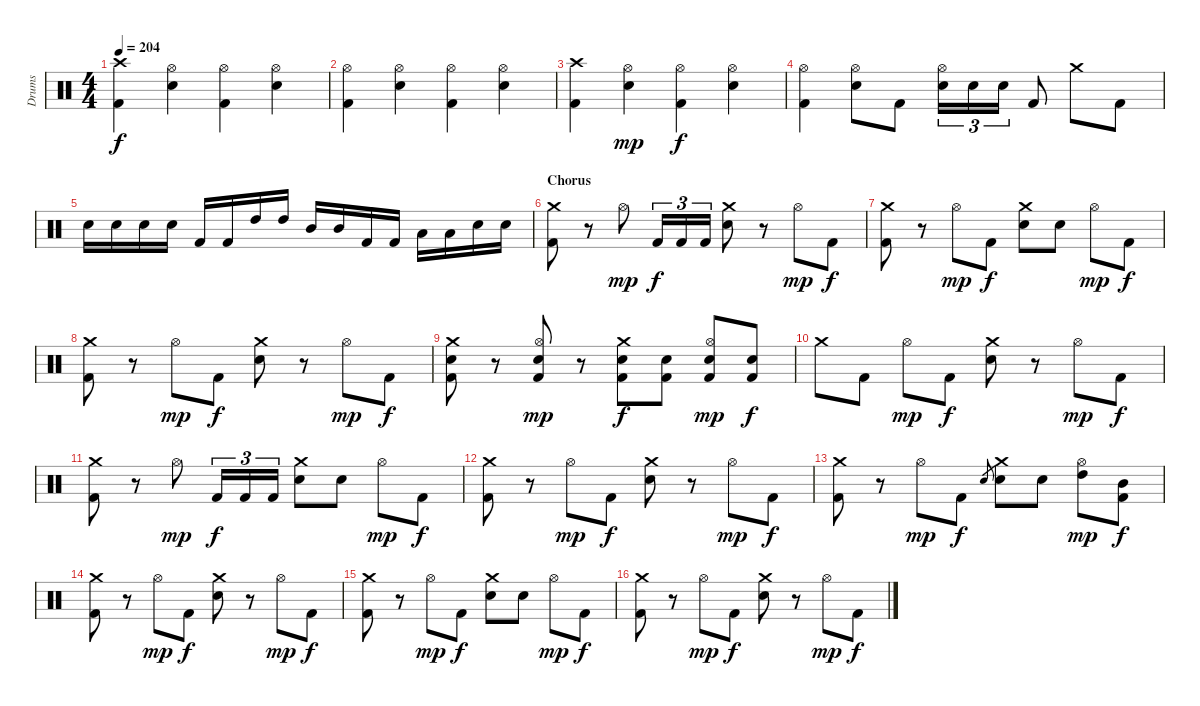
\track ("Drums" "Drums") {instrument percussion}
\staff {score}
\articulation defaults
\ts (4 4)
\tempo 204
\clef neutral
\ks c
("Crash high (hit)" "Kick (hit) 2").4{dy f} ("Hi-Hat (open)" "Electric Snare (hit)").4 ("Hi-Hat (open)" "Kick (hit) 2").4 ("Hi-Hat (open)" "Electric Snare (hit)").4 |
("Hi-Hat (open)" "Kick (hit) 2").4 ("Hi-Hat (open)" "Electric Snare (hit)").4 ("Hi-Hat (open)" "Kick (hit) 2").4 ("Hi-Hat (open)" "Electric Snare (hit)").4 |
("Crash high (hit)" "Kick (hit) 2").4 ("Hi-Hat (open)" "Electric Snare (hit)").4{dy mp} ("Hi-Hat (open)" "Kick (hit) 2").4{dy f} ("Hi-Hat (open)" "Electric Snare (hit)").4 |
("Hi-Hat (open)" "Kick (hit) 2").4 ("Hi-Hat (open)" "Electric Snare (hit)").8 "Kick (hit) 2".8 ("Hi-Hat (open)" "Electric Snare (hit)").16{tu (3 2)} "Electric Snare (hit)".16{tu (3 2)} "Electric Snare (hit)".16{tu (3 2)} "Kick (hit) 2".8 "Crash medium (hit)".8 "Kick (hit) 2".8 |
"Electric Snare (hit)".16 "Electric Snare (hit)".16 "Electric Snare (hit)".16 "Electric Snare (hit)".16 "Kick (hit) 2".16 "Kick (hit) 2".16 "High Tom (hit)".16 "High Tom (hit)".16 "Mid Tom (hit)".16 "Mid Tom (hit)".16 "Kick (hit) 2".16 "Kick (hit) 2".16 "Low Tom (hit)".16 "Low Tom (hit)".16 "Electric Snare (hit)".16 "Electric Snare (hit)".16 |
\section ("" "Chorus")
("Crash medium (hit)" "Kick (hit) 2").8 r.8 "Hi-Hat (open)".8{dy mp} "Kick (hit) 2".16{tu (3 2) dy f} "Kick (hit) 2".16{tu (3 2)} "Kick (hit) 2".16{tu (3 2)} ("Crash medium (hit)" "Electric Snare (hit)").8 r.8 "Hi-Hat (open)".8{dy mp} "Kick (hit) 2".8{dy f} |
("Crash medium (hit)" "Kick (hit) 2").8 r.8 "Hi-Hat (open)".8{dy mp} "Kick (hit) 2".8{dy f} ("Crash medium (hit)" "Electric Snare (hit)").8 "Electric Snare (hit)".8 "Hi-Hat (open)".8{dy mp} "Kick (hit) 2".8{dy f} |
("Crash medium (hit)" "Kick (hit) 2").8 r.8 "Hi-Hat (open)".8{dy mp} "Kick (hit) 2".8{dy f} ("Crash medium (hit)" "Electric Snare (hit)").8 r.8 "Hi-Hat (open)".8{dy mp} "Kick (hit) 2".8{dy f} |
("Crash medium (hit)" "Electric Snare (hit)" "Kick (hit) 2").8 r.8 ("Hi-Hat (open)" "Electric Snare (hit)" "Kick (hit) 2").8{dy mp} r.8 ("Crash medium (hit)" "Electric Snare (hit)" "Kick (hit) 2").8{dy f} ("Electric Snare (hit)" "Kick (hit) 2").8 ("Hi-Hat (open)" "Electric Snare (hit)" "Kick (hit) 2").8{dy mp} ("Electric Snare (hit)" "Kick (hit) 2").8{dy f} |
"Crash medium (hit)".8 "Kick (hit) 2".8 "Hi-Hat (open)".8{dy mp} "Kick (hit) 2".8{dy f} ("Crash medium (hit)" "Electric Snare (hit)").8 r.8 "Hi-Hat (open)".8{dy mp} "Kick (hit) 2".8{dy f} |
("Crash medium (hit)" "Kick (hit) 2").8 r.8 "Hi-Hat (open)".8{dy mp} "Kick (hit) 2".16{tu (3 2) dy f} "Kick (hit) 2".16{tu (3 2)} "Kick (hit) 2".16{tu (3 2)} ("Crash medium (hit)" "Electric Snare (hit)").8 "Electric Snare (hit)".8 "Hi-Hat (open)".8{dy mp} "Kick (hit) 2".8{dy f} |
("Crash medium (hit)" "Kick (hit) 2").8 r.8 "Hi-Hat (open)".8{dy mp} "Kick (hit) 2".8{dy f} ("Crash medium (hit)" "Electric Snare (hit)").8 r.8 "Hi-Hat (open)".8{dy mp} "Kick (hit) 2".8{dy f} |
("Crash medium (hit)" "Kick (hit) 2").8 r.8 "Hi-Hat (open)".8{dy mp} "Kick (hit) 2".8{dy f} "Electric Snare (hit)".8{gr} ("Crash medium (hit)" "Electric Snare (hit)").8 "Electric Snare (hit)".8 ("Hi-Hat (open)" "High Tom (hit)").8{dy mp} ("Mid Tom (hit)" "Kick (hit) 2").8{dy f} |
("Crash medium (hit)" "Kick (hit) 2").8 r.8 "Hi-Hat (open)".8{dy mp} "Kick (hit) 2".8{dy f} ("Crash medium (hit)" "Electric Snare (hit)").8 r.8 "Hi-Hat (open)".8{dy mp} "Kick (hit) 2".8{dy f} |
("Crash medium (hit)" "Kick (hit) 2").8 r.8 "Hi-Hat (open)".8{dy mp} "Kick (hit) 2".8{dy f} ("Crash medium (hit)" "Electric Snare (hit)").8 "Electric Snare (hit)".8 "Hi-Hat (open)".8{dy mp} "Kick (hit) 2".8{dy f} |
("Crash medium (hit)" "Kick (hit) 2").8 r.8 "Hi-Hat (open)".8{dy mp} "Kick (hit) 2".8{dy f} ("Crash medium (hit)" "Electric Snare (hit)").8 r.8 "Hi-Hat (open)".8{dy mp} "Kick (hit) 2".8{dy f}
